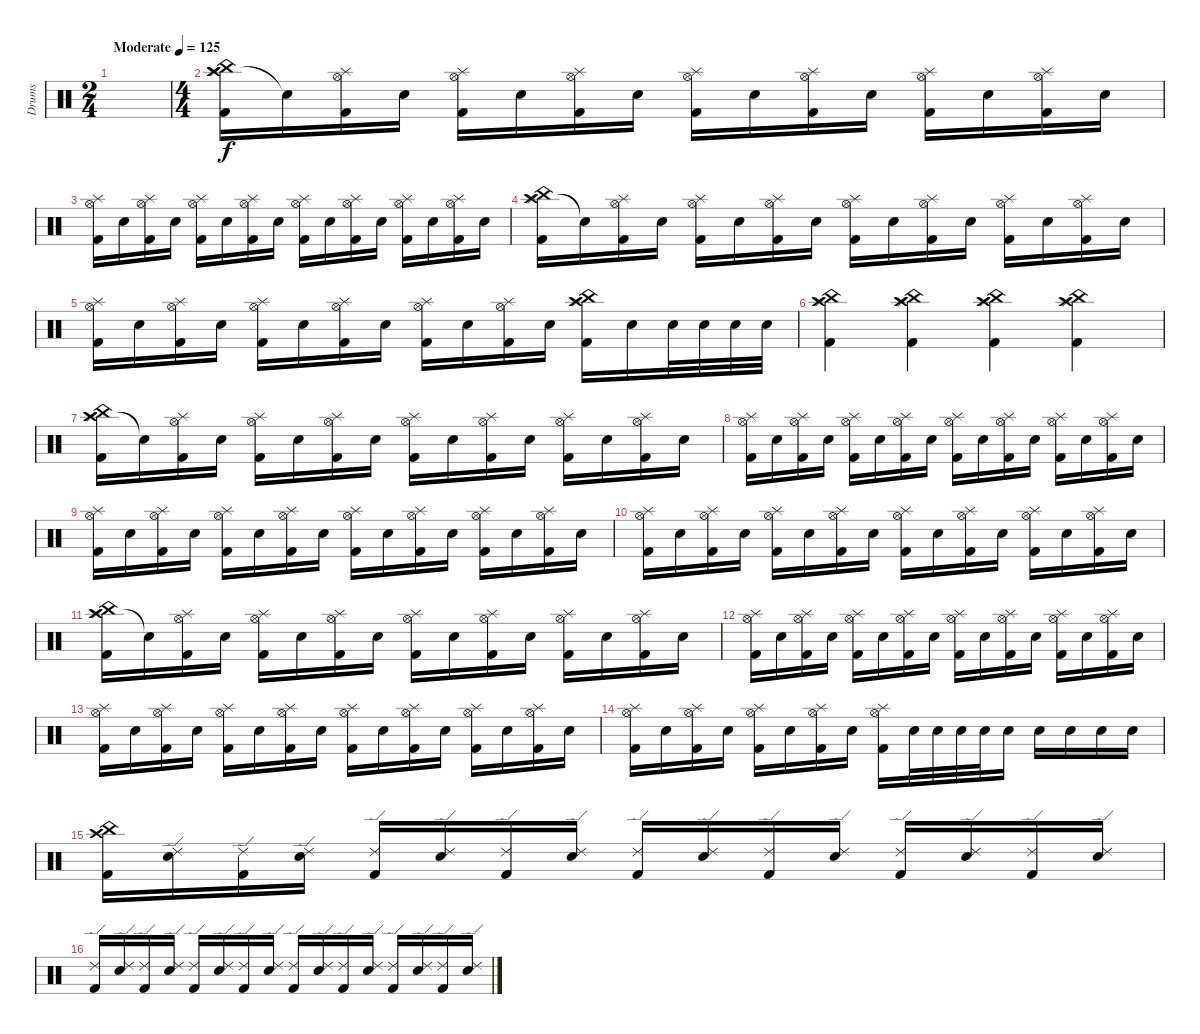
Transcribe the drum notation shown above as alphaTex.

\track ("Drums" "Drums") {instrument percussion}
\staff {score}
\articulation defaults
\ts (2 4)
\tempo (125 "Moderate")
\clef neutral
\ks c
|
\ts (4 4)
("Crash high (hit)" "China (hit)" "Splash (hit)" "Kick (hit) 2").16 "Snare (hit)"{t}.16 ("Hi-Hat (open)" "Splash (hit)" "Kick (hit) 2").16 "Electric Snare (hit)".16 ("Hi-Hat (open)" "Splash (hit)" "Kick (hit) 2").16 "Electric Snare (hit)".16 ("Hi-Hat (open)" "Splash (hit)" "Kick (hit) 2").16 "Electric Snare (hit)".16 ("Hi-Hat (open)" "Splash (hit)" "Kick (hit) 2").16 "Electric Snare (hit)".16 ("Hi-Hat (open)" "Splash (hit)" "Kick (hit) 2").16 "Electric Snare (hit)".16 ("Hi-Hat (open)" "Splash (hit)" "Kick (hit) 2").16 "Electric Snare (hit)".16 ("Hi-Hat (open)" "Splash (hit)" "Kick (hit) 2").16 "Electric Snare (hit)".16 |
("Hi-Hat (open)" "Splash (hit)" "Kick (hit) 2").16 "Electric Snare (hit)".16 ("Hi-Hat (open)" "Splash (hit)" "Kick (hit) 2").16 "Electric Snare (hit)".16 ("Hi-Hat (open)" "Splash (hit)" "Kick (hit) 2").16 "Electric Snare (hit)".16 ("Hi-Hat (open)" "Splash (hit)" "Kick (hit) 2").16 "Electric Snare (hit)".16 ("Hi-Hat (open)" "Splash (hit)" "Kick (hit) 2").16 "Electric Snare (hit)".16 ("Hi-Hat (open)" "Splash (hit)" "Kick (hit) 2").16 "Electric Snare (hit)".16 ("Hi-Hat (open)" "Splash (hit)" "Kick (hit) 2").16 "Electric Snare (hit)".16 ("Hi-Hat (open)" "Splash (hit)" "Kick (hit) 2").16 "Electric Snare (hit)".16 |
("Crash high (hit)" "China (hit)" "Splash (hit)" "Kick (hit) 2").16 "Snare (hit)"{t}.16 ("Hi-Hat (open)" "Splash (hit)" "Kick (hit) 2").16 "Electric Snare (hit)".16 ("Hi-Hat (open)" "Splash (hit)" "Kick (hit) 2").16 "Electric Snare (hit)".16 ("Hi-Hat (open)" "Splash (hit)" "Kick (hit) 2").16 "Electric Snare (hit)".16 ("Hi-Hat (open)" "Splash (hit)" "Kick (hit) 2").16 "Electric Snare (hit)".16 ("Hi-Hat (open)" "Splash (hit)" "Kick (hit) 2").16 "Electric Snare (hit)".16 ("Hi-Hat (open)" "Splash (hit)" "Kick (hit) 2").16 "Electric Snare (hit)".16 ("Hi-Hat (open)" "Splash (hit)" "Kick (hit) 2").16 "Electric Snare (hit)".16 |
("Hi-Hat (open)" "Splash (hit)" "Kick (hit) 2").16 "Electric Snare (hit)".16 ("Hi-Hat (open)" "Splash (hit)" "Kick (hit) 2").16 "Electric Snare (hit)".16 ("Hi-Hat (open)" "Splash (hit)" "Kick (hit) 2").16 "Electric Snare (hit)".16 ("Hi-Hat (open)" "Splash (hit)" "Kick (hit) 2").16 "Electric Snare (hit)".16 ("Hi-Hat (open)" "Splash (hit)" "Kick (hit) 2").16 "Electric Snare (hit)".16 ("Hi-Hat (open)" "Splash (hit)" "Kick (hit) 2").16 "Electric Snare (hit)".16 ("Crash high (hit)" "China (hit)" "Splash (hit)" "Kick (hit) 2").16 "Electric Snare (hit)".16 "Electric Snare (hit)".32 "Electric Snare (hit)".32 "Electric Snare (hit)".32 "Electric Snare (hit)".32 |
("Crash high (hit)" "Splash (hit)" "China (hit)" "Kick (hit) 2").4 ("Crash high (hit)" "Splash (hit)" "China (hit)" "Kick (hit) 2").4 ("Crash high (hit)" "Splash (hit)" "China (hit)" "Kick (hit) 2").4 ("Crash high (hit)" "Splash (hit)" "China (hit)" "Kick (hit) 2").4 |
("Crash high (hit)" "China (hit)" "Splash (hit)" "Kick (hit) 2").16 "Snare (hit)"{t}.16 ("Hi-Hat (open)" "Splash (hit)" "Kick (hit) 2").16 "Electric Snare (hit)".16 ("Hi-Hat (open)" "Splash (hit)" "Kick (hit) 2").16 "Electric Snare (hit)".16 ("Hi-Hat (open)" "Splash (hit)" "Kick (hit) 2").16 "Electric Snare (hit)".16 ("Hi-Hat (open)" "Splash (hit)" "Kick (hit) 2").16 "Electric Snare (hit)".16 ("Hi-Hat (open)" "Splash (hit)" "Kick (hit) 2").16 "Electric Snare (hit)".16 ("Hi-Hat (open)" "Splash (hit)" "Kick (hit) 2").16 "Electric Snare (hit)".16 ("Hi-Hat (open)" "Splash (hit)" "Kick (hit) 2").16 "Electric Snare (hit)".16 |
("Hi-Hat (open)" "Splash (hit)" "Kick (hit) 2").16 "Electric Snare (hit)".16 ("Hi-Hat (open)" "Splash (hit)" "Kick (hit) 2").16 "Electric Snare (hit)".16 ("Hi-Hat (open)" "Splash (hit)" "Kick (hit) 2").16 "Electric Snare (hit)".16 ("Hi-Hat (open)" "Splash (hit)" "Kick (hit) 2").16 "Electric Snare (hit)".16 ("Hi-Hat (open)" "Splash (hit)" "Kick (hit) 2").16 "Electric Snare (hit)".16 ("Hi-Hat (open)" "Splash (hit)" "Kick (hit) 2").16 "Electric Snare (hit)".16 ("Hi-Hat (open)" "Splash (hit)" "Kick (hit) 2").16 "Electric Snare (hit)".16 ("Hi-Hat (open)" "Splash (hit)" "Kick (hit) 2").16 "Electric Snare (hit)".16 |
("Hi-Hat (open)" "Splash (hit)" "Kick (hit) 2").16 "Electric Snare (hit)".16 ("Hi-Hat (open)" "Splash (hit)" "Kick (hit) 2").16 "Electric Snare (hit)".16 ("Hi-Hat (open)" "Splash (hit)" "Kick (hit) 2").16 "Electric Snare (hit)".16 ("Hi-Hat (open)" "Splash (hit)" "Kick (hit) 2").16 "Electric Snare (hit)".16 ("Hi-Hat (open)" "Splash (hit)" "Kick (hit) 2").16 "Electric Snare (hit)".16 ("Hi-Hat (open)" "Splash (hit)" "Kick (hit) 2").16 "Electric Snare (hit)".16 ("Hi-Hat (open)" "Splash (hit)" "Kick (hit) 2").16 "Electric Snare (hit)".16 ("Hi-Hat (open)" "Splash (hit)" "Kick (hit) 2").16 "Electric Snare (hit)".16 |
("Hi-Hat (open)" "Splash (hit)" "Kick (hit) 2").16 "Electric Snare (hit)".16 ("Hi-Hat (open)" "Splash (hit)" "Kick (hit) 2").16 "Electric Snare (hit)".16 ("Hi-Hat (open)" "Splash (hit)" "Kick (hit) 2").16 "Electric Snare (hit)".16 ("Hi-Hat (open)" "Splash (hit)" "Kick (hit) 2").16 "Electric Snare (hit)".16 ("Hi-Hat (open)" "Splash (hit)" "Kick (hit) 2").16 "Electric Snare (hit)".16 ("Hi-Hat (open)" "Splash (hit)" "Kick (hit) 2").16 "Electric Snare (hit)".16 ("Hi-Hat (open)" "Splash (hit)" "Kick (hit) 2").16 "Electric Snare (hit)".16 ("Hi-Hat (open)" "Splash (hit)" "Kick (hit) 2").16 "Electric Snare (hit)".16 |
("Crash high (hit)" "China (hit)" "Splash (hit)" "Kick (hit) 2").16 "Snare (hit)"{t}.16 ("Hi-Hat (open)" "Splash (hit)" "Kick (hit) 2").16 "Electric Snare (hit)".16 ("Hi-Hat (open)" "Splash (hit)" "Kick (hit) 2").16 "Electric Snare (hit)".16 ("Hi-Hat (open)" "Splash (hit)" "Kick (hit) 2").16 "Electric Snare (hit)".16 ("Hi-Hat (open)" "Splash (hit)" "Kick (hit) 2").16 "Electric Snare (hit)".16 ("Hi-Hat (open)" "Splash (hit)" "Kick (hit) 2").16 "Electric Snare (hit)".16 ("Hi-Hat (open)" "Splash (hit)" "Kick (hit) 2").16 "Electric Snare (hit)".16 ("Hi-Hat (open)" "Splash (hit)" "Kick (hit) 2").16 "Electric Snare (hit)".16 |
("Hi-Hat (open)" "Splash (hit)" "Kick (hit) 2").16 "Electric Snare (hit)".16 ("Hi-Hat (open)" "Splash (hit)" "Kick (hit) 2").16 "Electric Snare (hit)".16 ("Hi-Hat (open)" "Splash (hit)" "Kick (hit) 2").16 "Electric Snare (hit)".16 ("Hi-Hat (open)" "Splash (hit)" "Kick (hit) 2").16 "Electric Snare (hit)".16 ("Hi-Hat (open)" "Splash (hit)" "Kick (hit) 2").16 "Electric Snare (hit)".16 ("Hi-Hat (open)" "Splash (hit)" "Kick (hit) 2").16 "Electric Snare (hit)".16 ("Hi-Hat (open)" "Splash (hit)" "Kick (hit) 2").16 "Electric Snare (hit)".16 ("Hi-Hat (open)" "Splash (hit)" "Kick (hit) 2").16 "Electric Snare (hit)".16 |
("Hi-Hat (open)" "Splash (hit)" "Kick (hit) 2").16 "Electric Snare (hit)".16 ("Hi-Hat (open)" "Splash (hit)" "Kick (hit) 2").16 "Electric Snare (hit)".16 ("Hi-Hat (open)" "Splash (hit)" "Kick (hit) 2").16 "Electric Snare (hit)".16 ("Hi-Hat (open)" "Splash (hit)" "Kick (hit) 2").16 "Electric Snare (hit)".16 ("Hi-Hat (open)" "Splash (hit)" "Kick (hit) 2").16 "Electric Snare (hit)".16 ("Hi-Hat (open)" "Splash (hit)" "Kick (hit) 2").16 "Electric Snare (hit)".16 ("Hi-Hat (open)" "Splash (hit)" "Kick (hit) 2").16 "Electric Snare (hit)".16 ("Hi-Hat (open)" "Splash (hit)" "Kick (hit) 2").16 "Electric Snare (hit)".16 |
("Hi-Hat (open)" "Splash (hit)" "Kick (hit) 2").16 "Electric Snare (hit)".16 ("Hi-Hat (open)" "Splash (hit)" "Kick (hit) 2").16 "Electric Snare (hit)".16 ("Hi-Hat (open)" "Splash (hit)" "Kick (hit) 2").16 "Electric Snare (hit)".16 ("Hi-Hat (open)" "Splash (hit)" "Kick (hit) 2").16 "Electric Snare (hit)".16 ("Hi-Hat (open)" "Splash (hit)" "Kick (hit) 2").16 "Electric Snare (hit)".32 "Electric Snare (hit)".32 "Electric Snare (hit)".32 "Electric Snare (hit)".32 "Electric Snare (hit)".16 "Electric Snare (hit)".16 "Electric Snare (hit)".16 "Electric Snare (hit)".16 "Electric Snare (hit)".16 |
("Crash high (hit)" "China (hit)" "Kick (hit) 2").16 ("Ride (edge) 2" "Electric Snare (hit)").16 ("Ride (edge) 2" "Kick (hit) 2").16 ("Ride (edge) 2" "Electric Snare (hit)").16 ("Ride (edge) 2" "Kick (hit) 2").16 ("Ride (edge) 2" "Electric Snare (hit)").16 ("Ride (edge) 2" "Kick (hit) 2").16 ("Ride (edge) 2" "Electric Snare (hit)").16 ("Ride (edge) 2" "Kick (hit) 2").16 ("Ride (edge) 2" "Electric Snare (hit)").16 ("Ride (edge) 2" "Kick (hit) 2").16 ("Ride (edge) 2" "Electric Snare (hit)").16 ("Ride (edge) 2" "Kick (hit) 2").16 ("Ride (edge) 2" "Electric Snare (hit)").16 ("Ride (edge) 2" "Kick (hit) 2").16 ("Ride (edge) 2" "Electric Snare (hit)").16 |
("Ride (edge) 2" "Kick (hit) 2").16 ("Ride (edge) 2" "Electric Snare (hit)").16 ("Ride (edge) 2" "Kick (hit) 2").16 ("Ride (edge) 2" "Electric Snare (hit)").16 ("Ride (edge) 2" "Kick (hit) 2").16 ("Ride (edge) 2" "Electric Snare (hit)").16 ("Ride (edge) 2" "Kick (hit) 2").16 ("Ride (edge) 2" "Electric Snare (hit)").16 ("Ride (edge) 2" "Kick (hit) 2").16 ("Ride (edge) 2" "Electric Snare (hit)").16 ("Ride (edge) 2" "Kick (hit) 2").16 ("Ride (edge) 2" "Electric Snare (hit)").16 ("Ride (edge) 2" "Kick (hit) 2").16 ("Ride (edge) 2" "Electric Snare (hit)").16 ("Ride (edge) 2" "Kick (hit) 2").16 ("Ride (edge) 2" "Electric Snare (hit)").16
